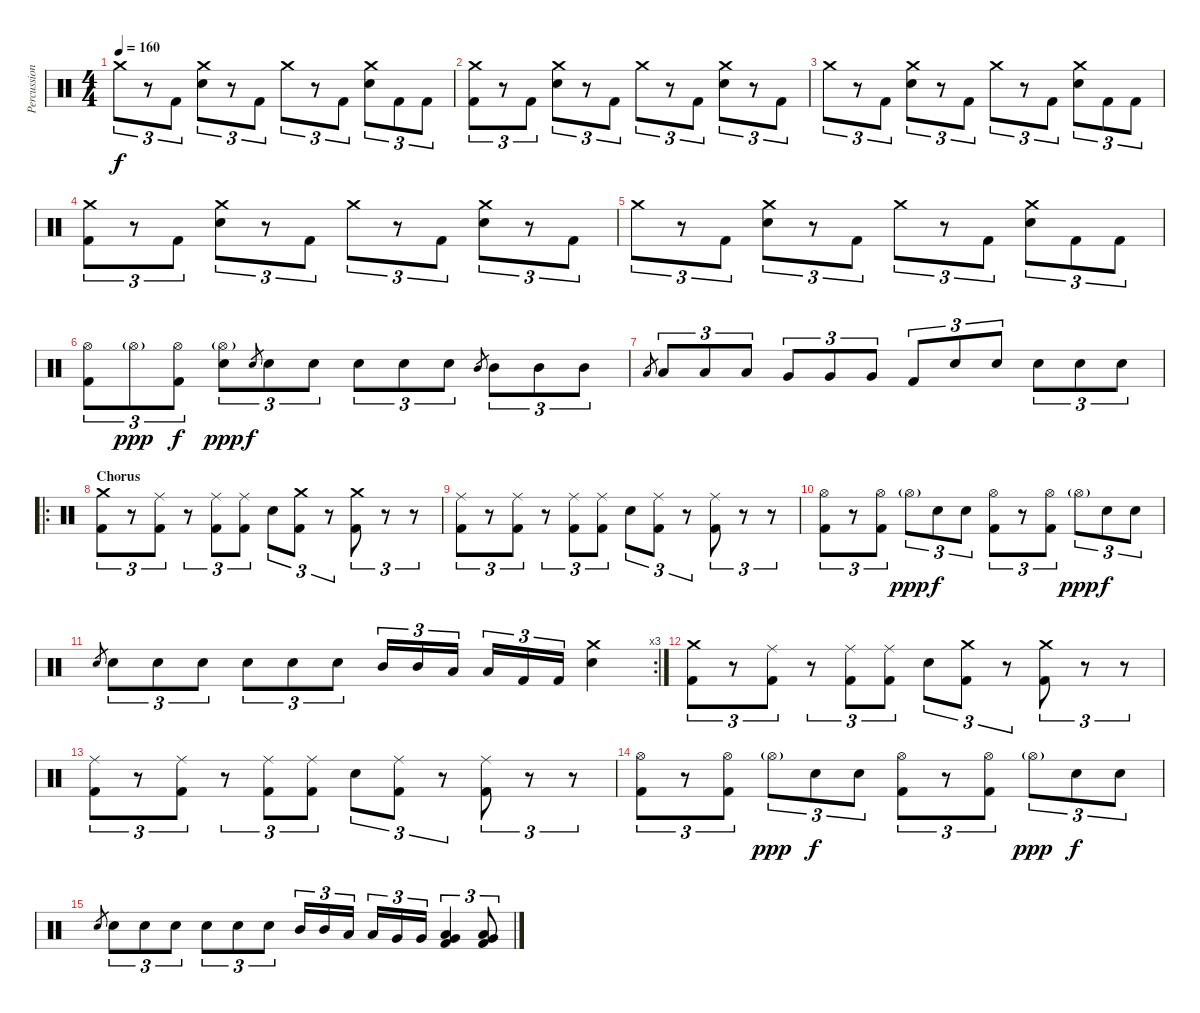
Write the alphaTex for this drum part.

\track ("Percussion" "Percussion") {instrument percussion}
\staff {score}
\articulation defaults
\ts (4 4)
\tempo 160
\clef neutral
\ks c "Crash medium (hit)".8{tu (3 2) dy f}
r.8{tu (3 2)} "Kick (hit) 2".8{tu (3 2)} ("Crash medium (hit)" "Electric Snare (hit)").8{tu (3 2)} r.8{tu (3 2)} "Kick (hit) 2".8{tu (3 2)} "Crash medium (hit)".8{tu (3 2)} r.8{tu (3 2)} "Kick (hit) 2".8{tu (3 2)} ("Crash medium (hit)" "Electric Snare (hit)").8{tu (3 2)} "Kick (hit) 2".8{tu (3 2)} "Kick (hit) 2".8{tu (3 2)} |
("Crash medium (hit)" "Kick (hit) 2").8{tu (3 2)} r.8{tu (3 2)} "Kick (hit) 2".8{tu (3 2)} ("Crash medium (hit)" "Electric Snare (hit)").8{tu (3 2)} r.8{tu (3 2)} "Kick (hit) 2".8{tu (3 2)} "Crash medium (hit)".8{tu (3 2)} r.8{tu (3 2)} "Kick (hit) 2".8{tu (3 2)} ("Crash medium (hit)" "Electric Snare (hit)").8{tu (3 2)} r.8{tu (3 2)} "Kick (hit) 2".8{tu (3 2)} |
"Crash medium (hit)".8{tu (3 2)} r.8{tu (3 2)} "Kick (hit) 2".8{tu (3 2)} ("Crash medium (hit)" "Electric Snare (hit)").8{tu (3 2)} r.8{tu (3 2)} "Kick (hit) 2".8{tu (3 2)} "Crash medium (hit)".8{tu (3 2)} r.8{tu (3 2)} "Kick (hit) 2".8{tu (3 2)} ("Crash medium (hit)" "Electric Snare (hit)").8{tu (3 2)} "Kick (hit) 2".8{tu (3 2)} "Kick (hit) 2".8{tu (3 2)} |
("Crash medium (hit)" "Kick (hit) 2").8{tu (3 2)} r.8{tu (3 2)} "Kick (hit) 2".8{tu (3 2)} ("Crash medium (hit)" "Electric Snare (hit)").8{tu (3 2)} r.8{tu (3 2)} "Kick (hit) 2".8{tu (3 2)} "Crash medium (hit)".8{tu (3 2)} r.8{tu (3 2)} "Kick (hit) 2".8{tu (3 2)} ("Crash medium (hit)" "Electric Snare (hit)").8{tu (3 2)} r.8{tu (3 2)} "Kick (hit) 2".8{tu (3 2)} |
"Crash medium (hit)".8{tu (3 2)} r.8{tu (3 2)} "Kick (hit) 2".8{tu (3 2)} ("Crash medium (hit)" "Electric Snare (hit)").8{tu (3 2)} r.8{tu (3 2)} "Kick (hit) 2".8{tu (3 2)} "Crash medium (hit)".8{tu (3 2)} r.8{tu (3 2)} "Kick (hit) 2".8{tu (3 2)} ("Crash medium (hit)" "Electric Snare (hit)").8{tu (3 2)} "Kick (hit) 2".8{tu (3 2)} "Kick (hit) 2".8{tu (3 2)} |
("Hi-Hat (open)" "Kick (hit) 2").8{tu (3 2)} "Hi-Hat (open)"{g}.8{tu (3 2) dy ppp} ("Hi-Hat (open)" "Kick (hit) 2").8{tu (3 2) dy f} ("Hi-Hat (open)"{g} "Electric Snare (hit)").8{tu (3 2) dy ppp} "Electric Snare (hit)".8{gr dy f} "Electric Snare (hit)".8{tu (3 2)} "Electric Snare (hit)".8{tu (3 2)} "Electric Snare (hit)".8{tu (3 2)} "Electric Snare (hit)".8{tu (3 2)} "Electric Snare (hit)".8{tu (3 2)} "Mid Tom (hit)".8{gr} "Mid Tom (hit)".8{tu (3 2)} "Mid Tom (hit)".8{tu (3 2)} "Mid Tom (hit)".8{tu (3 2)} |
"Low Tom (hit)".8{gr} "Low Tom (hit)".8{tu (3 2)} "Low Tom (hit)".8{tu (3 2)} "Low Tom (hit)".8{tu (3 2)} "Very Low Tom (hit)".8{tu (3 2)} "Very Low Tom (hit)".8{tu (3 2)} "Very Low Tom (hit)".8{tu (3 2)} "Kick (hit) 2".8{tu (3 2)} "Electric Snare (hit)".8{tu (3 2)} "Electric Snare (hit)".8{tu (3 2)} "Electric Snare (hit)".8{tu (3 2)} "Electric Snare (hit)".8{tu (3 2)} "Electric Snare (hit)".8{tu (3 2)} |
\ro
\section ("" "Chorus")
("Crash medium (hit)" "Kick (hit) 2").8{tu (3 2)} r.8{tu (3 2)} ("Ride (middle)" "Kick (hit) 2").8{tu (3 2)} r.8{tu (3 2)} ("Ride (middle)" "Kick (hit) 2").8{tu (3 2)} ("Ride (middle)" "Kick (hit) 2").8{tu (3 2)} "Electric Snare (hit)".8{tu (3 2)} ("Crash medium (hit)" "Kick (hit) 2").8{tu (3 2)} r.8{tu (3 2)} ("Crash medium (hit)" "Kick (hit) 2").8{tu (3 2)} r.8{tu (3 2)} r.8{tu (3 2)} |
("Ride (middle)" "Kick (hit) 2").8{tu (3 2)} r.8{tu (3 2)} ("Ride (middle)" "Kick (hit) 2").8{tu (3 2)} r.8{tu (3 2)} ("Ride (middle)" "Kick (hit) 2").8{tu (3 2)} ("Ride (middle)" "Kick (hit) 2").8{tu (3 2)} "Electric Snare (hit)".8{tu (3 2)} ("Ride (middle)" "Kick (hit) 2").8{tu (3 2)} r.8{tu (3 2)} ("Ride (middle)" "Kick (hit) 2").8{tu (3 2)} r.8{tu (3 2)} r.8{tu (3 2)} |
("Hi-Hat (open)" "Kick (hit) 2").8{tu (3 2)} r.8{tu (3 2)} ("Hi-Hat (open)" "Kick (hit) 2").8{tu (3 2)} "Hi-Hat (open)"{g}.8{tu (3 2) dy ppp} "Electric Snare (hit)".8{tu (3 2) dy f} "Electric Snare (hit)".8{tu (3 2)} ("Hi-Hat (open)" "Kick (hit) 2").8{tu (3 2)} r.8{tu (3 2)} ("Hi-Hat (open)" "Kick (hit) 2").8{tu (3 2)} "Hi-Hat (open)"{g}.8{tu (3 2) dy ppp} "Electric Snare (hit)".8{tu (3 2) dy f} "Electric Snare (hit)".8{tu (3 2)} |
\rc 3 "Electric Snare (hit)".8{gr} "Electric Snare (hit)".8{tu (3 2)} "Electric Snare (hit)".8{tu (3 2)} "Electric Snare (hit)".8{tu (3 2)} "Electric Snare (hit)".8{tu (3 2)} "Electric Snare (hit)".8{tu (3 2)} "Electric Snare (hit)".8{tu (3 2)} "Mid Tom (hit)".16{tu (3 2)} "Mid Tom (hit)".16{tu (3 2)} "Low Tom (hit)".16{tu (3 2)} "Low Tom (hit)".16{tu (3 2)} "Kick (hit) 2".16{tu (3 2)} "Kick (hit) 2".16{tu (3 2)}
("Crash medium (hit)" "Electric Snare (hit)").4 |
("Crash medium (hit)" "Kick (hit) 2").8{tu (3 2)} r.8{tu (3 2)} ("Ride (middle)" "Kick (hit) 2").8{tu (3 2)} r.8{tu (3 2)} ("Ride (middle)" "Kick (hit) 2").8{tu (3 2)} ("Ride (middle)" "Kick (hit) 2").8{tu (3 2)} "Electric Snare (hit)".8{tu (3 2)} ("Crash medium (hit)" "Kick (hit) 2").8{tu (3 2)} r.8{tu (3 2)} ("Crash medium (hit)" "Kick (hit) 2").8{tu (3 2)} r.8{tu (3 2)} r.8{tu (3 2)} |
("Ride (middle)" "Kick (hit) 2").8{tu (3 2)} r.8{tu (3 2)} ("Ride (middle)" "Kick (hit) 2").8{tu (3 2)} r.8{tu (3 2)} ("Ride (middle)" "Kick (hit) 2").8{tu (3 2)} ("Ride (middle)" "Kick (hit) 2").8{tu (3 2)} "Electric Snare (hit)".8{tu (3 2)} ("Ride (middle)" "Kick (hit) 2").8{tu (3 2)} r.8{tu (3 2)} ("Ride (middle)" "Kick (hit) 2").8{tu (3 2)} r.8{tu (3 2)} r.8{tu (3 2)} |
("Hi-Hat (open)" "Kick (hit) 2").8{tu (3 2)} r.8{tu (3 2)} ("Hi-Hat (open)" "Kick (hit) 2").8{tu (3 2)} "Hi-Hat (open)"{g}.8{tu (3 2) dy ppp} "Electric Snare (hit)".8{tu (3 2) dy f} "Electric Snare (hit)".8{tu (3 2)} ("Hi-Hat (open)" "Kick (hit) 2").8{tu (3 2)} r.8{tu (3 2)} ("Hi-Hat (open)" "Kick (hit) 2").8{tu (3 2)} "Hi-Hat (open)"{g}.8{tu (3 2) dy ppp} "Electric Snare (hit)".8{tu (3 2) dy f} "Electric Snare (hit)".8{tu (3 2)} |
"Electric Snare (hit)".8{gr} "Electric Snare (hit)".8{tu (3 2)} "Electric Snare (hit)".8{tu (3 2)} "Electric Snare (hit)".8{tu (3 2)} "Electric Snare (hit)".8{tu (3 2)} "Electric Snare (hit)".8{tu (3 2)} "Electric Snare (hit)".8{tu (3 2)} "Mid Tom (hit)".16{tu (3 2)} "Mid Tom (hit)".16{tu (3 2)} "Low Tom (hit)".16{tu (3 2)} "Low Tom (hit)".16{tu (3 2)} "Very Low Tom (hit)".16{tu (3 2)} "Very Low Tom (hit)".16{tu (3 2)} ("Very Low Tom (hit)" "Low Floor Tom (hit)" "Kick (hit) 2").4{tu (3 2)} ("Very Low Tom (hit)" "Low Floor Tom (hit)" "Kick (hit) 2").8{tu (3 2)}
